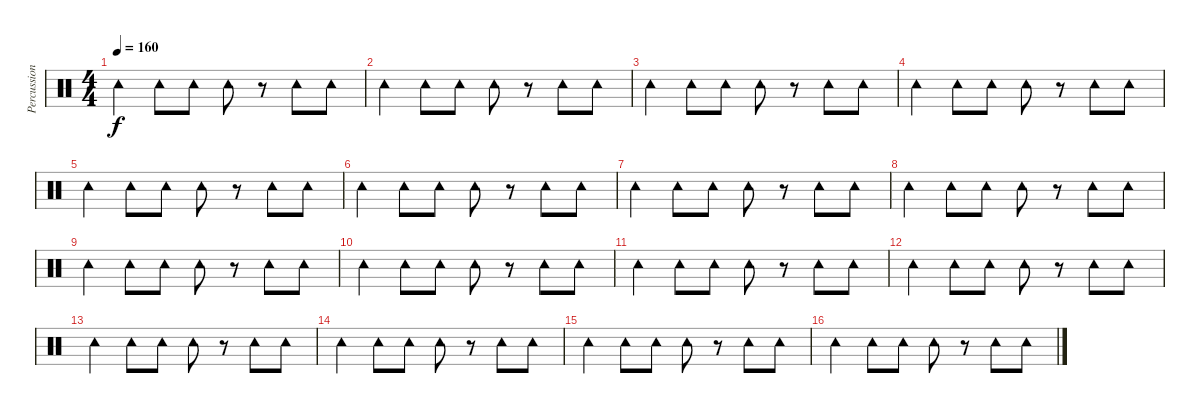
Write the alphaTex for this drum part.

\track ("Percussions" "Percussion") {instrument percussion}
\staff {score}
\articulation defaults
\ts (4 4)
\tempo 160
\clef neutral
\ks c "Tambourine (hit)".4{dy f} "Tambourine (hit)".8 "Tambourine (hit)".8 "Tambourine (hit)".8
r.8 "Tambourine (hit)".8 "Tambourine (hit)".8 |
"Tambourine (hit)".4 "Tambourine (hit)".8 "Tambourine (hit)".8 "Tambourine (hit)".8 r.8 "Tambourine (hit)".8 "Tambourine (hit)".8 |
"Tambourine (hit)".4 "Tambourine (hit)".8 "Tambourine (hit)".8 "Tambourine (hit)".8 r.8 "Tambourine (hit)".8 "Tambourine (hit)".8 |
"Tambourine (hit)".4 "Tambourine (hit)".8 "Tambourine (hit)".8 "Tambourine (hit)".8 r.8 "Tambourine (hit)".8 "Tambourine (hit)".8 |
"Tambourine (hit)".4 "Tambourine (hit)".8 "Tambourine (hit)".8 "Tambourine (hit)".8 r.8 "Tambourine (hit)".8 "Tambourine (hit)".8 |
"Tambourine (hit)".4 "Tambourine (hit)".8 "Tambourine (hit)".8 "Tambourine (hit)".8 r.8 "Tambourine (hit)".8 "Tambourine (hit)".8 |
"Tambourine (hit)".4 "Tambourine (hit)".8 "Tambourine (hit)".8 "Tambourine (hit)".8 r.8 "Tambourine (hit)".8 "Tambourine (hit)".8 |
"Tambourine (hit)".4 "Tambourine (hit)".8 "Tambourine (hit)".8 "Tambourine (hit)".8 r.8 "Tambourine (hit)".8 "Tambourine (hit)".8 |
"Tambourine (hit)".4 "Tambourine (hit)".8 "Tambourine (hit)".8 "Tambourine (hit)".8 r.8 "Tambourine (hit)".8 "Tambourine (hit)".8 |
"Tambourine (hit)".4 "Tambourine (hit)".8 "Tambourine (hit)".8 "Tambourine (hit)".8 r.8 "Tambourine (hit)".8 "Tambourine (hit)".8 |
"Tambourine (hit)".4 "Tambourine (hit)".8 "Tambourine (hit)".8 "Tambourine (hit)".8 r.8 "Tambourine (hit)".8 "Tambourine (hit)".8 |
"Tambourine (hit)".4 "Tambourine (hit)".8 "Tambourine (hit)".8 "Tambourine (hit)".8 r.8 "Tambourine (hit)".8 "Tambourine (hit)".8 |
"Tambourine (hit)".4 "Tambourine (hit)".8 "Tambourine (hit)".8 "Tambourine (hit)".8 r.8 "Tambourine (hit)".8 "Tambourine (hit)".8 |
"Tambourine (hit)".4 "Tambourine (hit)".8 "Tambourine (hit)".8 "Tambourine (hit)".8 r.8 "Tambourine (hit)".8 "Tambourine (hit)".8 |
"Tambourine (hit)".4 "Tambourine (hit)".8 "Tambourine (hit)".8 "Tambourine (hit)".8 r.8 "Tambourine (hit)".8 "Tambourine (hit)".8 |
"Tambourine (hit)".4 "Tambourine (hit)".8 "Tambourine (hit)".8 "Tambourine (hit)".8 r.8 "Tambourine (hit)".8 "Tambourine (hit)".8
